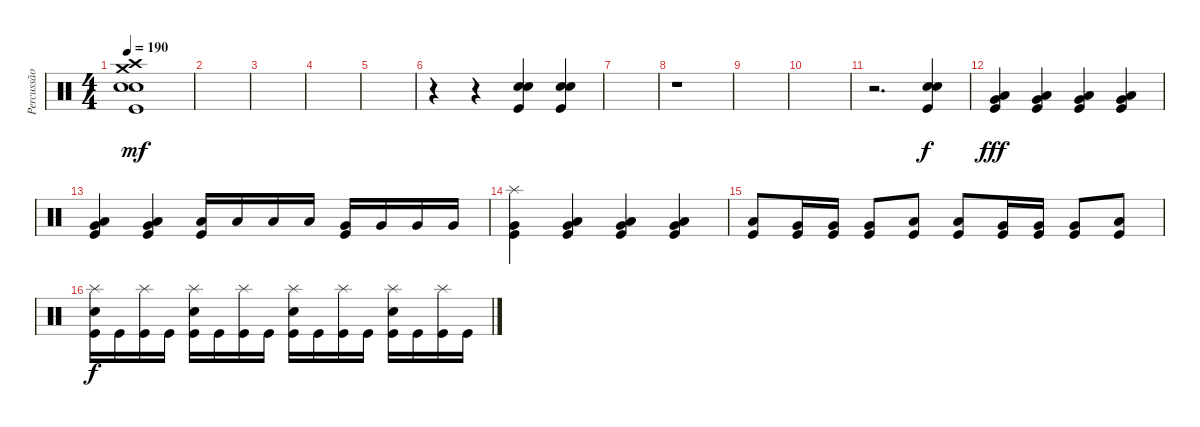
\track ("Percussão" "Percussão") {instrument percussion}
\staff {score}
\articulation defaults
\ts (4 4)
\tempo 190
\clef neutral
\ks c
("Crash medium (hit)" "Crash high (hit)" "Snare (hit) 2" "Electric Snare (hit)" "Kick (hit)").1{dy mf} |
|
|
|
|
r.4 r.4 ("Snare (hit) 2" "Electric Snare (hit)" "Kick (hit)").4 ("Snare (hit) 2" "Electric Snare (hit)" "Kick (hit)").4 |
|
r.1 |
|
|
r.2{d} ("Electric Snare (hit)" "Snare (hit) 2" "Kick (hit)").4{dy f} |
("Low Tom (hit)" "Very Low Tom (hit)" "Kick (hit)").4{dy fff} ("Low Tom (hit)" "Very Low Tom (hit)" "Kick (hit)").4 ("Low Tom (hit)" "Very Low Tom (hit)" "Kick (hit)").4 ("Low Tom (hit)" "Very Low Tom (hit)" "Kick (hit)").4 |
("Low Tom (hit)" "Very Low Tom (hit)" "Kick (hit)").4 ("Low Tom (hit)" "Very Low Tom (hit)" "Kick (hit)").4 ("Low Tom (hit)" "Kick (hit)").16 "Low Tom (hit)".16 "Low Tom (hit)".16 "Low Tom (hit)".16 ("Very Low Tom (hit)" "Kick (hit)").16 "Very Low Tom (hit)".16 "Very Low Tom (hit)".16 "Very Low Tom (hit)".16 |
("Splash (hit)" "Very Low Tom (hit)" "Kick (hit)").4 ("Very Low Tom (hit)" "Low Tom (hit)" "Kick (hit)").4 ("Very Low Tom (hit)" "Low Tom (hit)" "Kick (hit)").4 ("Very Low Tom (hit)" "Low Tom (hit)" "Kick (hit)").4 |
("Low Tom (hit)" "Kick (hit)").8 ("Very Low Tom (hit)" "Kick (hit)").16 ("Very Low Tom (hit)" "Kick (hit)").16 ("Very Low Tom (hit)" "Kick (hit)").8 ("Low Tom (hit)" "Kick (hit)").8 ("Low Tom (hit)" "Kick (hit)").8 ("Very Low Tom (hit)" "Kick (hit)").16 ("Very Low Tom (hit)" "Kick (hit)").16 ("Very Low Tom (hit)" "Kick (hit)").8 ("Low Tom (hit)" "Kick (hit)").8 |
("Splash (hit)" "Snare (hit) 2" "Kick (hit)").16{dy f} "Kick (hit)".16 ("Splash (hit)" "Kick (hit)").16 "Kick (hit)".16 ("Splash (hit)" "Snare (hit) 2" "Kick (hit)").16 "Kick (hit)".16 ("Splash (hit)" "Kick (hit)").16 "Kick (hit)".16 ("Splash (hit)" "Snare (hit) 2" "Kick (hit)").16 "Kick (hit)".16 ("Splash (hit)" "Kick (hit)").16 "Kick (hit)".16 ("Splash (hit)" "Snare (hit) 2" "Kick (hit)").16 "Kick (hit)".16 ("Splash (hit)" "Kick (hit)").16 "Kick (hit)".16
